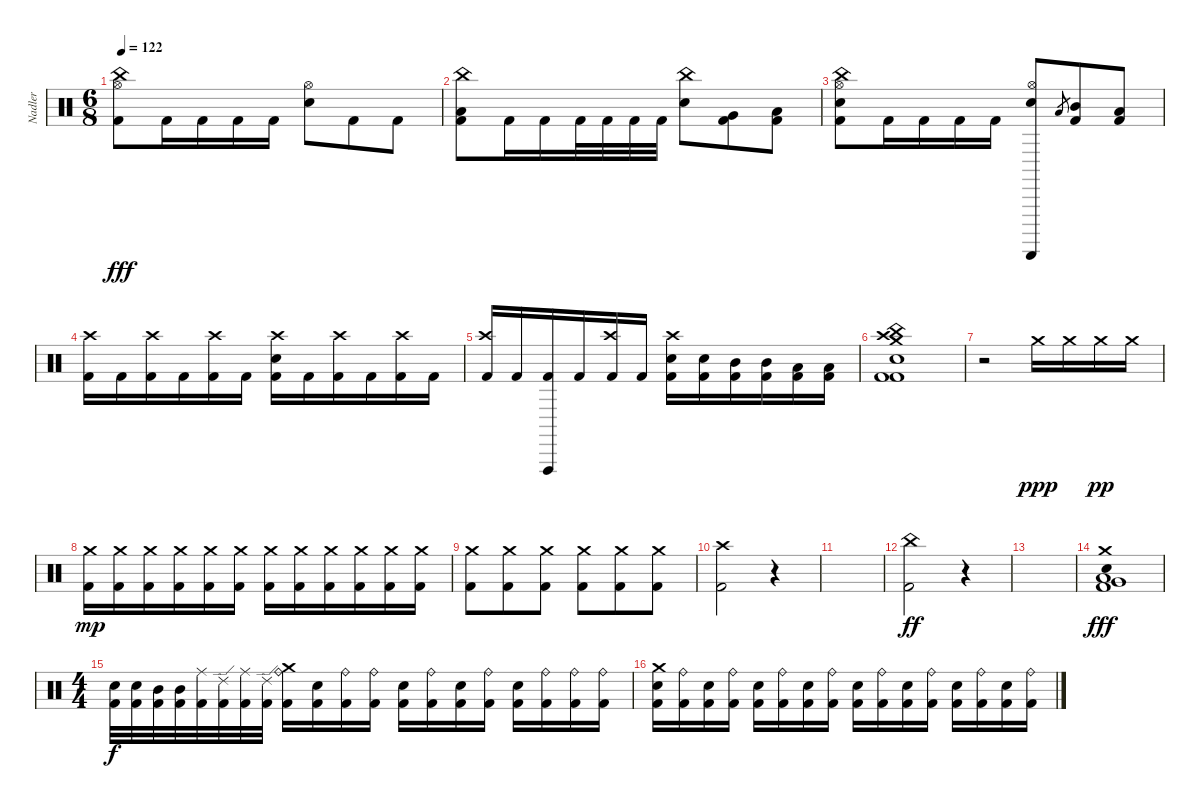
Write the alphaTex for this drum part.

\track ("Nadler" "Nadler") {mute instrument percussion}
\staff {score}
\articulation defaults
\ts (6 8)
\tempo 122
\clef neutral
\ks c
("Hi-Hat (open)" "China (hit)" "Kick (hit) 2").8{dy fff} "Kick (hit) 2".16 "Kick (hit) 2".16 "Kick (hit) 2".16 "Kick (hit) 2".16 ("Hi-Hat (open)" "Electric Snare (hit)").8 "Kick (hit) 2".8 "Kick (hit) 2".8 |
("China (hit)" "Low Floor Tom (hit)" "Kick (hit) 2").8 "Kick (hit) 2".16 "Kick (hit) 2".16 "Kick (hit) 2".32 "Kick (hit) 2".32 "Kick (hit) 2".32 "Kick (hit) 2".32 ("China (hit)" "Electric Snare (hit)").8 ("Very Low Tom (hit)" "Kick (hit) 2").8 ("Low Floor Tom (hit)" "Kick (hit) 2").8 |
("Hi-Hat (open)" "China (hit)" "Electric Snare (hit)" "Kick (hit) 2").8 "Kick (hit) 2".16 "Kick (hit) 2".16 "Kick (hit) 2".16 "Kick (hit) 2".16 ("Hi-Hat (open)" "Guiro (scrap-return)" "Electric Snare (hit)").8 "Low Floor Tom (hit)".8{gr} ("Mid Tom (hit)" "Kick (hit) 2").8 ("Low Tom (hit)" "Kick (hit) 2").8 |
("Crash high (hit)" "Kick (hit) 2").16 "Kick (hit) 2".16 ("Crash high (hit)" "Kick (hit) 2").16 "Kick (hit) 2".16 ("Crash high (hit)" "Kick (hit) 2").16 "Kick (hit) 2".16 ("Crash high (hit)" "Electric Snare (hit)" "Kick (hit) 2").16 "Kick (hit) 2".16 ("Crash high (hit)" "Kick (hit) 2").16 "Kick (hit) 2".16 ("Crash high (hit)" "Kick (hit) 2").16 "Kick (hit) 2".16 |
("Crash high (hit)" "Kick (hit) 2").16 "Kick (hit) 2".16 ("Vibraslap (hit)" "Kick (hit) 2").16 "Kick (hit) 2".16 ("Crash high (hit)" "Kick (hit) 2").16 "Kick (hit) 2".16 ("Crash high (hit)" "Electric Snare (hit)" "Kick (hit) 2").16 ("Electric Snare (hit)" "Kick (hit) 2").16 ("Mid Tom (hit)" "Kick (hit) 2").16 ("Mid Tom (hit)" "Kick (hit) 2").16 ("Low Tom (hit)" "Kick (hit) 2").16 ("Low Tom (hit)" "Kick (hit) 2").16 |
("China (hit)" "Crash high (hit)" "Electric Snare (hit)" "Crash medium (hit)" "Kick (hit) 2" "Kick (hit) 2").1{volume 8} |
r.2 "Crash medium (hit)".16{dy ppp volume 11} "Crash medium (hit)".16 "Crash medium (hit)".16{dy pp} "Crash medium (hit)".16 |
("Crash medium (hit)" "Kick (hit) 2").16{dy mp} ("Crash medium (hit)" "Kick (hit) 2").16 ("Crash medium (hit)" "Kick (hit) 2").16 ("Crash medium (hit)" "Kick (hit) 2").16 ("Crash medium (hit)" "Kick (hit) 2").16 ("Crash medium (hit)" "Kick (hit) 2").16 ("Crash medium (hit)" "Kick (hit) 2").16 ("Crash medium (hit)" "Kick (hit) 2").16 ("Crash medium (hit)" "Kick (hit) 2").16 ("Crash medium (hit)" "Kick (hit) 2").16 ("Crash medium (hit)" "Kick (hit) 2").16 ("Crash medium (hit)" "Kick (hit) 2").16 |
("Crash medium (hit)" "Kick (hit) 2").8 ("Crash medium (hit)" "Kick (hit) 2").8 ("Crash medium (hit)" "Kick (hit) 2").8 ("Crash medium (hit)" "Kick (hit) 2").8 ("Crash medium (hit)" "Kick (hit) 2").8 ("Crash medium (hit)" "Kick (hit) 2").8 |
("Crash high (hit)" "Kick (hit) 2").2 r.4 |
|
("China (hit)" "Kick (hit) 2").2{dy ff} r.4 |
|
("Crash medium (hit)" "Metronome (bell)" "Very Low Tom (hit)" "Low Floor Tom (hit)" "Kick (hit) 2").1{dy fff} |
\ts (4 4)
("Electric Snare (hit)" "Kick (hit) 2").32{dy f volume 14} ("Electric Snare (hit)" "Kick (hit) 2").32 ("Mid Tom (hit)" "Kick (hit) 2").32 ("Mid Tom (hit)" "Kick (hit) 2").32 ("Ride (middle)" "Kick (hit) 2").32{balance 0} ("Ride (edge) 2" "Kick (hit) 2").32{balance 16} ("Ride (middle)" "Kick (hit) 2").32{balance 0} ("Ride (edge) 2" "Kick (hit) 2").32{balance 16} ("Crash medium (hit)" "Ride (bell)" "Kick (hit) 2").16{balance 8} ("Electric Snare (hit)" "Kick (hit) 2").16 ("Ride (bell)" "Kick (hit) 2").16 ("Ride (bell)" "Kick (hit) 2").16 ("Electric Snare (hit)" "Kick (hit) 2").16 ("Ride (bell)" "Kick (hit) 2").16 ("Electric Snare (hit)" "Kick (hit) 2").16 ("Ride (bell)" "Kick (hit) 2").16 ("Electric Snare (hit)" "Kick (hit) 2").16 ("Ride (bell)" "Kick (hit) 2").16 ("Ride (bell)" "Kick (hit) 2").16 ("Ride (bell)" "Kick (hit) 2").16 |
("Crash medium (hit)" "Electric Snare (hit)" "Kick (hit) 2").16 ("Ride (bell)" "Kick (hit) 2").16 ("Electric Snare (hit)" "Kick (hit) 2").16 ("Ride (bell)" "Kick (hit) 2").16 ("Electric Snare (hit)" "Kick (hit) 2").16 ("Ride (bell)" "Kick (hit) 2").16 ("Electric Snare (hit)" "Kick (hit) 2").16 ("Ride (bell)" "Kick (hit) 2").16 ("Electric Snare (hit)" "Kick (hit) 2").16 ("Ride (bell)" "Kick (hit) 2").16 ("Electric Snare (hit)" "Kick (hit) 2").16 ("Ride (bell)" "Kick (hit) 2").16 ("Electric Snare (hit)" "Kick (hit) 2").16 ("Ride (bell)" "Kick (hit) 2").16 ("Electric Snare (hit)" "Kick (hit) 2").16 ("Ride (bell)" "Kick (hit) 2").16
